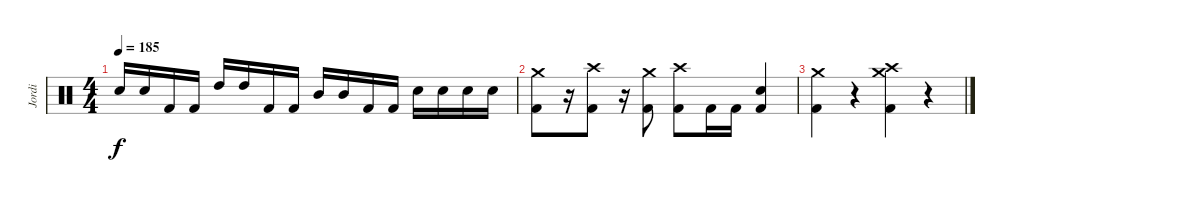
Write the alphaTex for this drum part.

\track ("Jordi" "Jordi") {instrument percussion}
\staff {score}
\articulation defaults
\ts (4 4)
\tempo 185
\clef neutral
\ks c "Snare (hit) 2".16{dy f} "Snare (hit) 2".16 "Kick (hit) 2".16 "Kick (hit) 2".16 "High Tom (hit)".16 "High Tom (hit)".16 "Kick (hit) 2".16 "Kick (hit) 2".16 "Mid Tom (hit)".16 "Mid Tom (hit)".16 "Kick (hit) 2".16 "Kick (hit) 2".16 "Snare (hit) 2".16 "Snare (hit) 2".16 "Snare (hit) 2".16 "Snare (hit) 2".16
|
("Crash medium (hit)" "Kick (hit) 2").8 r.16 ("Crash high (hit)" "Kick (hit) 2").8 r.16 ("Crash medium (hit)" "Kick (hit) 2").8 ("Crash high (hit)" "Kick (hit) 2").8 "Kick (hit) 2".16 "Kick (hit) 2".16 ("Snare (hit) 2" "Kick (hit) 2").4 |
("Crash medium (hit)" "Kick (hit) 2").4 r.4 ("Crash high (hit)" "Crash medium (hit)" "Kick (hit) 2").4 r.4
